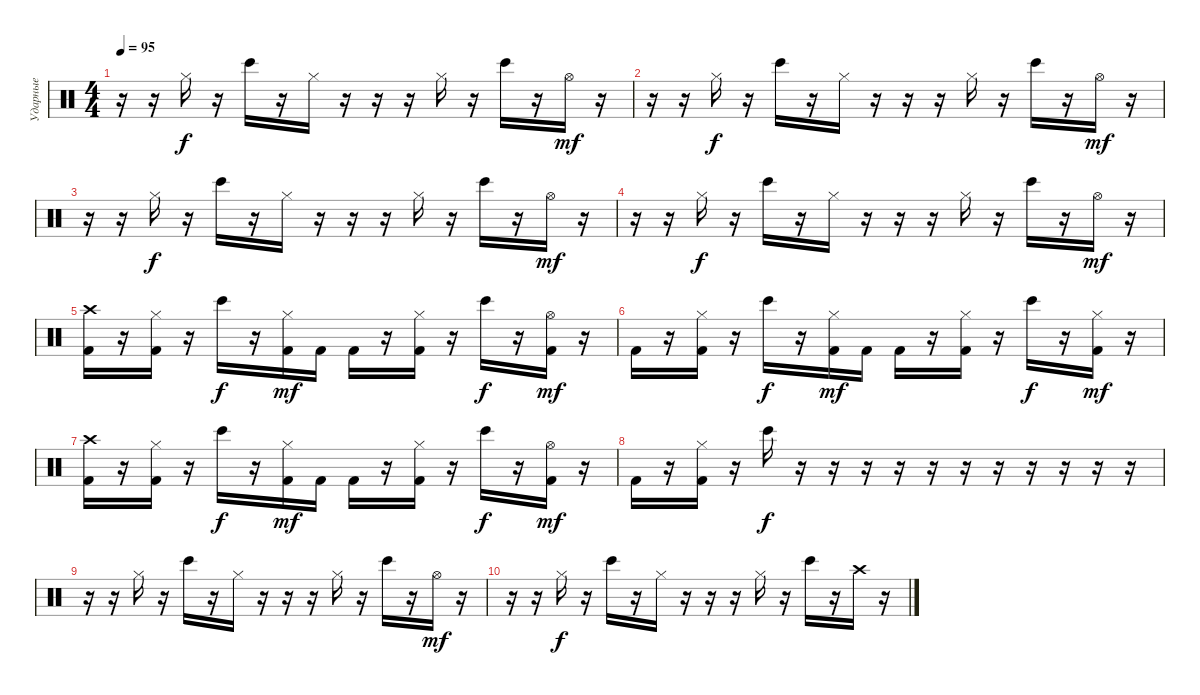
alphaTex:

\track ("Ударные" "Ударные") {instrument percussion}
\staff {score}
\articulation defaults
\ts (4 4)
\tempo 95
\clef neutral
\ks c
r.16{dy mf} r.16 "Hi-Hat (closed)".16{dy f} r.16 "Bongo High (hit)".16 r.16 "Hi-Hat (closed)".16 r.16 r.16 r.16 "Hi-Hat (closed)".16 r.16 "Bongo High (hit)".16 r.16 "Hi-Hat (open)".16{dy mf} r.16 |
r.16 r.16 "Hi-Hat (closed)".16{dy f} r.16 "Bongo High (hit)".16 r.16 "Hi-Hat (closed)".16 r.16 r.16 r.16 "Hi-Hat (closed)".16 r.16 "Bongo High (hit)".16 r.16 "Hi-Hat (open)".16{dy mf} r.16 |
r.16 r.16 "Hi-Hat (closed)".16{dy f} r.16 "Bongo High (hit)".16 r.16 "Hi-Hat (closed)".16 r.16 r.16 r.16 "Hi-Hat (closed)".16 r.16 "Bongo High (hit)".16 r.16 "Hi-Hat (open)".16{dy mf} r.16 |
r.16 r.16 "Hi-Hat (closed)".16{dy f} r.16 "Bongo High (hit)".16 r.16 "Hi-Hat (closed)".16 r.16 r.16 r.16 "Hi-Hat (closed)".16 r.16 "Bongo High (hit)".16 r.16 "Hi-Hat (open)".16{dy mf} r.16 |
("Crash high (hit)" "Kick (hit) 2").16 r.16 ("Hi-Hat (closed)" "Kick (hit) 2").16 r.16 "Bongo High (hit)".16{dy f} r.16 ("Hi-Hat (closed)" "Kick (hit) 2").16{dy mf} "Kick (hit) 2".16 "Kick (hit) 2".16 r.16 ("Hi-Hat (closed)" "Kick (hit) 2").16 r.16 "Bongo High (hit)".16{dy f} r.16 ("Hi-Hat (open)" "Kick (hit) 2").16{dy mf} r.16 |
"Kick (hit) 2".16 r.16 ("Hi-Hat (closed)" "Kick (hit) 2").16 r.16 "Bongo High (hit)".16{dy f} r.16 ("Hi-Hat (closed)" "Kick (hit) 2").16{dy mf} "Kick (hit) 2".16 "Kick (hit) 2".16 r.16 ("Hi-Hat (closed)" "Kick (hit) 2").16 r.16 "Bongo High (hit)".16{dy f} r.16 ("Hi-Hat (closed)" "Kick (hit) 2").16{dy mf} r.16 |
("Crash high (hit)" "Kick (hit) 2").16 r.16 ("Hi-Hat (closed)" "Kick (hit) 2").16 r.16 "Bongo High (hit)".16{dy f} r.16 ("Hi-Hat (closed)" "Kick (hit) 2").16{dy mf} "Kick (hit) 2".16 "Kick (hit) 2".16 r.16 ("Hi-Hat (closed)" "Kick (hit) 2").16 r.16 "Bongo High (hit)".16{dy f} r.16 ("Hi-Hat (open)" "Kick (hit) 2").16{dy mf} r.16 |
"Kick (hit) 2".16 r.16 ("Hi-Hat (closed)" "Kick (hit) 2").16 r.16 "Bongo High (hit)".16{dy f} r.16 r.16 r.16 r.16 r.16 r.16 r.16 r.16 r.16 r.16 r.16 |
r.16 r.16 "Hi-Hat (closed)".16 r.16 "Bongo High (hit)".16 r.16 "Hi-Hat (closed)".16 r.16 r.16 r.16 "Hi-Hat (closed)".16 r.16 "Bongo High (hit)".16 r.16 "Hi-Hat (open)".16{dy mf} r.16 |
r.16 r.16 "Hi-Hat (closed)".16{dy f} r.16 "Bongo High (hit)".16 r.16 "Hi-Hat (closed)".16 r.16 r.16 r.16 "Hi-Hat (closed)".16 r.16 "Bongo High (hit)".16 r.16 "Crash high (hit)".16 r.16
